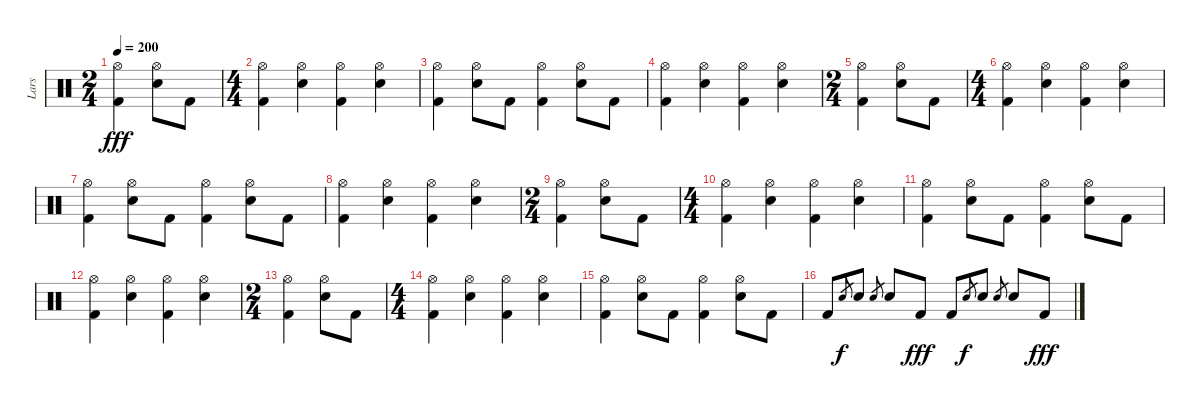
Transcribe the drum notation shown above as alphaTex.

\track ("Lars" "Lars") {instrument percussion}
\staff {score}
\articulation defaults
\ts (2 4)
\tempo 200
\clef neutral
\ks c
("Hi-Hat (open)" "Kick (hit) 2").4{dy fff} ("Hi-Hat (open)" "Snare (hit) 2").8 "Kick (hit) 2".8 |
\ts (4 4)
("Hi-Hat (open)" "Kick (hit) 2").4 ("Hi-Hat (open)" "Snare (hit) 2").4 ("Hi-Hat (open)" "Kick (hit) 2").4 ("Hi-Hat (open)" "Snare (hit) 2").4 |
("Hi-Hat (open)" "Kick (hit) 2").4 ("Hi-Hat (open)" "Snare (hit) 2").8 "Kick (hit) 2".8 ("Hi-Hat (open)" "Kick (hit) 2").4 ("Hi-Hat (open)" "Snare (hit) 2").8 "Kick (hit) 2".8 |
("Hi-Hat (open)" "Kick (hit) 2").4 ("Hi-Hat (open)" "Snare (hit) 2").4 ("Hi-Hat (open)" "Kick (hit) 2").4 ("Hi-Hat (open)" "Snare (hit) 2").4 |
\ts (2 4)
("Hi-Hat (open)" "Kick (hit) 2").4 ("Hi-Hat (open)" "Snare (hit) 2").8 "Kick (hit) 2".8 |
\ts (4 4)
("Hi-Hat (open)" "Kick (hit) 2").4 ("Hi-Hat (open)" "Snare (hit) 2").4 ("Hi-Hat (open)" "Kick (hit) 2").4 ("Hi-Hat (open)" "Snare (hit) 2").4 |
("Hi-Hat (open)" "Kick (hit) 2").4 ("Hi-Hat (open)" "Snare (hit) 2").8 "Kick (hit) 2".8 ("Hi-Hat (open)" "Kick (hit) 2").4 ("Hi-Hat (open)" "Snare (hit) 2").8 "Kick (hit) 2".8 |
("Hi-Hat (open)" "Kick (hit) 2").4 ("Hi-Hat (open)" "Snare (hit) 2").4 ("Hi-Hat (open)" "Kick (hit) 2").4 ("Hi-Hat (open)" "Snare (hit) 2").4 |
\ts (2 4)
("Hi-Hat (open)" "Kick (hit) 2").4 ("Hi-Hat (open)" "Snare (hit) 2").8 "Kick (hit) 2".8 |
\ts (4 4)
("Hi-Hat (open)" "Kick (hit) 2").4 ("Hi-Hat (open)" "Snare (hit) 2").4 ("Hi-Hat (open)" "Kick (hit) 2").4 ("Hi-Hat (open)" "Snare (hit) 2").4 |
("Hi-Hat (open)" "Kick (hit) 2").4 ("Hi-Hat (open)" "Snare (hit) 2").8 "Kick (hit) 2".8 ("Hi-Hat (open)" "Kick (hit) 2").4 ("Hi-Hat (open)" "Snare (hit) 2").8 "Kick (hit) 2".8 |
("Hi-Hat (open)" "Kick (hit) 2").4 ("Hi-Hat (open)" "Snare (hit) 2").4 ("Hi-Hat (open)" "Kick (hit) 2").4 ("Hi-Hat (open)" "Snare (hit) 2").4 |
\ts (2 4)
("Hi-Hat (open)" "Kick (hit) 2").4 ("Hi-Hat (open)" "Snare (hit) 2").8 "Kick (hit) 2".8 |
\ts (4 4)
("Hi-Hat (open)" "Kick (hit) 2").4 ("Hi-Hat (open)" "Snare (hit) 2").4 ("Hi-Hat (open)" "Kick (hit) 2").4 ("Hi-Hat (open)" "Snare (hit) 2").4 |
("Hi-Hat (open)" "Kick (hit) 2").4 ("Hi-Hat (open)" "Snare (hit) 2").8 "Kick (hit) 2".8 ("Hi-Hat (open)" "Kick (hit) 2").4 ("Hi-Hat (open)" "Snare (hit) 2").8 "Kick (hit) 2".8 |
"Kick (hit) 2".8 "Snare (hit) 2".8{gr dy f} "Snare (hit) 2".8 "Snare (hit) 2".8{gr} "Snare (hit) 2".8 "Kick (hit) 2".8{dy fff} "Kick (hit) 2".8 "Snare (hit) 2".8{gr dy f} "Snare (hit) 2".8 "Snare (hit) 2".8{gr} "Snare (hit) 2".8 "Kick (hit) 2".8{dy fff}
